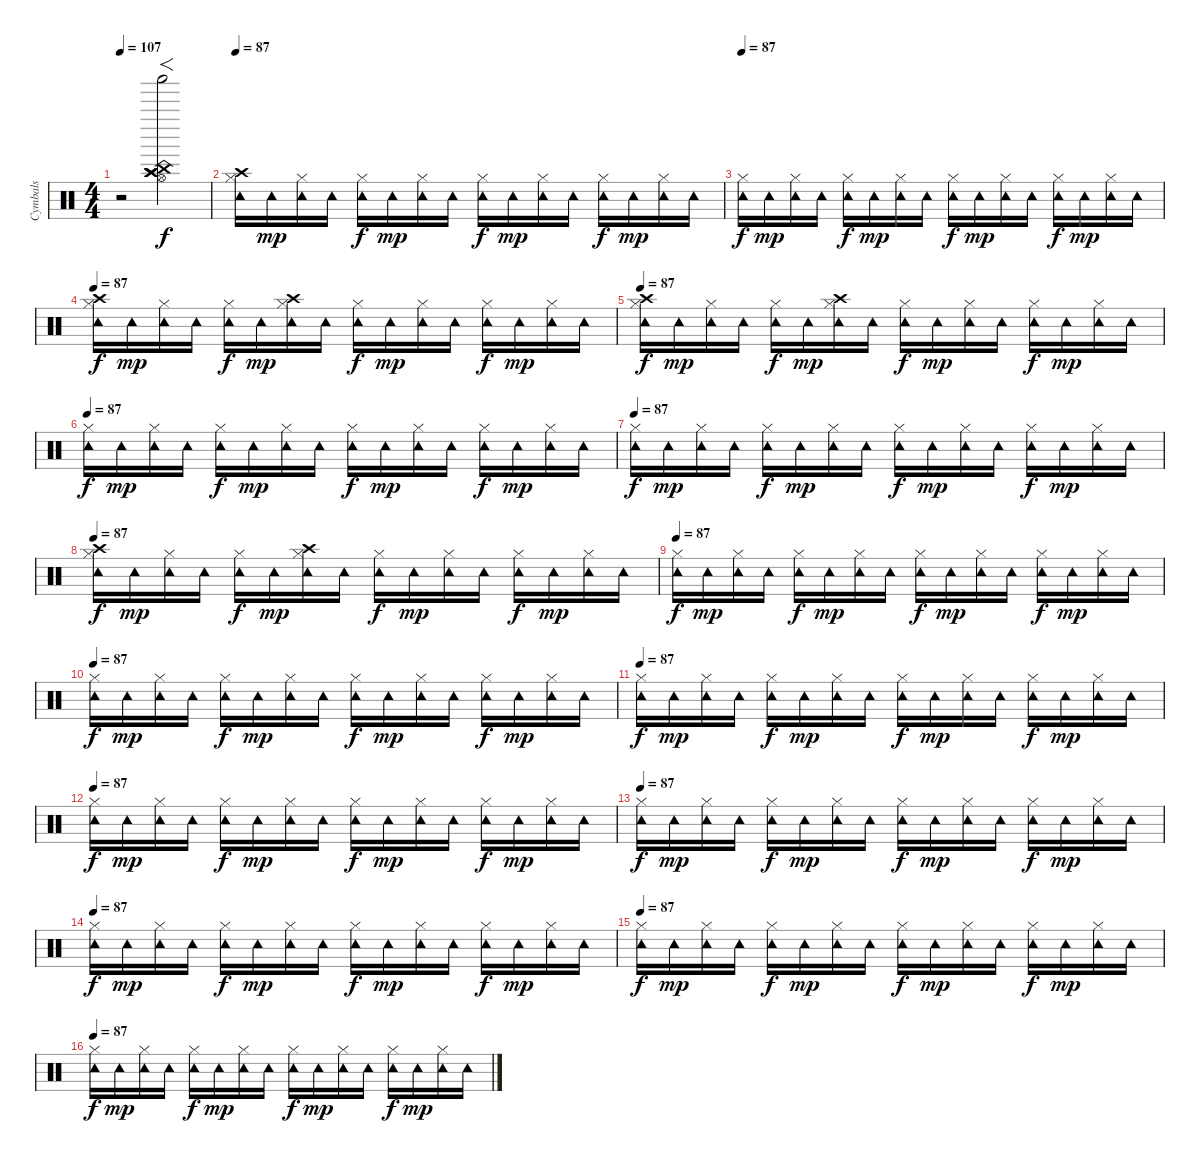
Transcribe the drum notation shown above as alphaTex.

\track ("Cymbals" "Cymbals") {instrument percussion}
\staff {score}
\articulation defaults
\ts (4 4)
\tempo 107
\clef neutral
\ks c
r.2{dy f} ("Crash high (hit)" "China (hit)" "Shaker (hit)" "Crash high (hit)" "Hi-Hat (open)" "Crash high (hit)").2{f} |
\tempo 87
("Crash high (hit)" "Hi-Hat (closed)" "Tambourine (hit)").16 "Tambourine (hit)".16{dy mp} ("Hi-Hat (closed)" "Tambourine (hit)").16 "Tambourine (hit)".16 ("Hi-Hat (closed)" "Tambourine (hit)").16{dy f} "Tambourine (hit)".16{dy mp} ("Hi-Hat (closed)" "Tambourine (hit)").16 "Tambourine (hit)".16 ("Hi-Hat (closed)" "Tambourine (hit)").16{dy f} "Tambourine (hit)".16{dy mp} ("Hi-Hat (closed)" "Tambourine (hit)").16 "Tambourine (hit)".16 ("Hi-Hat (closed)" "Tambourine (hit)").16{dy f} "Tambourine (hit)".16{dy mp} ("Hi-Hat (closed)" "Tambourine (hit)").16 "Tambourine (hit)".16 |
\tempo 87
("Hi-Hat (closed)" "Tambourine (hit)").16{dy f} "Tambourine (hit)".16{dy mp} ("Hi-Hat (closed)" "Tambourine (hit)").16 "Tambourine (hit)".16 ("Hi-Hat (closed)" "Tambourine (hit)").16{dy f} "Tambourine (hit)".16{dy mp} ("Hi-Hat (closed)" "Tambourine (hit)").16 "Tambourine (hit)".16 ("Hi-Hat (closed)" "Tambourine (hit)").16{dy f} "Tambourine (hit)".16{dy mp} ("Hi-Hat (closed)" "Tambourine (hit)").16 "Tambourine (hit)".16 ("Hi-Hat (closed)" "Tambourine (hit)").16{dy f} "Tambourine (hit)".16{dy mp} ("Hi-Hat (closed)" "Tambourine (hit)").16 "Tambourine (hit)".16 |
\tempo 87
("Crash high (hit)" "Hi-Hat (closed)" "Tambourine (hit)").16{dy f} "Tambourine (hit)".16{dy mp} ("Hi-Hat (closed)" "Tambourine (hit)").16 "Tambourine (hit)".16 ("Hi-Hat (closed)" "Tambourine (hit)").16{dy f} "Tambourine (hit)".16{dy mp} ("Crash high (hit)" "Hi-Hat (closed)" "Tambourine (hit)").16 "Tambourine (hit)".16 ("Hi-Hat (closed)" "Tambourine (hit)").16{dy f} "Tambourine (hit)".16{dy mp} ("Hi-Hat (closed)" "Tambourine (hit)").16 "Tambourine (hit)".16 ("Hi-Hat (closed)" "Tambourine (hit)").16{dy f} "Tambourine (hit)".16{dy mp} ("Hi-Hat (closed)" "Tambourine (hit)").16 "Tambourine (hit)".16 |
\tempo 87
("Crash high (hit)" "Hi-Hat (closed)" "Tambourine (hit)").16{dy f} "Tambourine (hit)".16{dy mp} ("Hi-Hat (closed)" "Tambourine (hit)").16 "Tambourine (hit)".16 ("Hi-Hat (closed)" "Tambourine (hit)").16{dy f} "Tambourine (hit)".16{dy mp} ("Crash high (hit)" "Hi-Hat (closed)" "Tambourine (hit)").16 "Tambourine (hit)".16 ("Hi-Hat (closed)" "Tambourine (hit)").16{dy f} "Tambourine (hit)".16{dy mp} ("Hi-Hat (closed)" "Tambourine (hit)").16 "Tambourine (hit)".16 ("Hi-Hat (closed)" "Tambourine (hit)").16{dy f} "Tambourine (hit)".16{dy mp} ("Hi-Hat (closed)" "Tambourine (hit)").16 "Tambourine (hit)".16 |
\tempo 87
("Hi-Hat (closed)" "Tambourine (hit)").16{dy f} "Tambourine (hit)".16{dy mp} ("Hi-Hat (closed)" "Tambourine (hit)").16 "Tambourine (hit)".16 ("Hi-Hat (closed)" "Tambourine (hit)").16{dy f} "Tambourine (hit)".16{dy mp} ("Hi-Hat (closed)" "Tambourine (hit)").16 "Tambourine (hit)".16 ("Hi-Hat (closed)" "Tambourine (hit)").16{dy f} "Tambourine (hit)".16{dy mp} ("Hi-Hat (closed)" "Tambourine (hit)").16 "Tambourine (hit)".16 ("Hi-Hat (closed)" "Tambourine (hit)").16{dy f} "Tambourine (hit)".16{dy mp} ("Hi-Hat (closed)" "Tambourine (hit)").16 "Tambourine (hit)".16 |
\tempo 87
("Hi-Hat (closed)" "Tambourine (hit)").16{dy f} "Tambourine (hit)".16{dy mp} ("Hi-Hat (closed)" "Tambourine (hit)").16 "Tambourine (hit)".16 ("Hi-Hat (closed)" "Tambourine (hit)").16{dy f} "Tambourine (hit)".16{dy mp} ("Hi-Hat (closed)" "Tambourine (hit)").16 "Tambourine (hit)".16 ("Hi-Hat (closed)" "Tambourine (hit)").16{dy f} "Tambourine (hit)".16{dy mp} ("Hi-Hat (closed)" "Tambourine (hit)").16 "Tambourine (hit)".16 ("Hi-Hat (closed)" "Tambourine (hit)").16{dy f} "Tambourine (hit)".16{dy mp} ("Hi-Hat (closed)" "Tambourine (hit)").16 "Tambourine (hit)".16 |
\tempo 87
("Crash high (hit)" "Hi-Hat (closed)" "Tambourine (hit)").16{dy f} "Tambourine (hit)".16{dy mp} ("Hi-Hat (closed)" "Tambourine (hit)").16 "Tambourine (hit)".16 ("Hi-Hat (closed)" "Tambourine (hit)").16{dy f} "Tambourine (hit)".16{dy mp} ("Crash high (hit)" "Hi-Hat (closed)" "Tambourine (hit)").16 "Tambourine (hit)".16 ("Hi-Hat (closed)" "Tambourine (hit)").16{dy f} "Tambourine (hit)".16{dy mp} ("Hi-Hat (closed)" "Tambourine (hit)").16 "Tambourine (hit)".16 ("Hi-Hat (closed)" "Tambourine (hit)").16{dy f} "Tambourine (hit)".16{dy mp} ("Hi-Hat (closed)" "Tambourine (hit)").16 "Tambourine (hit)".16 |
\tempo 87
("Hi-Hat (closed)" "Tambourine (hit)").16{dy f} "Tambourine (hit)".16{dy mp} ("Hi-Hat (closed)" "Tambourine (hit)").16 "Tambourine (hit)".16 ("Hi-Hat (closed)" "Tambourine (hit)").16{dy f} "Tambourine (hit)".16{dy mp} ("Hi-Hat (closed)" "Tambourine (hit)").16 "Tambourine (hit)".16 ("Hi-Hat (closed)" "Tambourine (hit)").16{dy f} "Tambourine (hit)".16{dy mp} ("Hi-Hat (closed)" "Tambourine (hit)").16 "Tambourine (hit)".16 ("Hi-Hat (closed)" "Tambourine (hit)").16{dy f} "Tambourine (hit)".16{dy mp} ("Hi-Hat (closed)" "Tambourine (hit)").16 "Tambourine (hit)".16 |
\tempo 87
("Hi-Hat (closed)" "Tambourine (hit)").16{dy f} "Tambourine (hit)".16{dy mp} ("Hi-Hat (closed)" "Tambourine (hit)").16 "Tambourine (hit)".16 ("Hi-Hat (closed)" "Tambourine (hit)").16{dy f} "Tambourine (hit)".16{dy mp} ("Hi-Hat (closed)" "Tambourine (hit)").16 "Tambourine (hit)".16 ("Hi-Hat (closed)" "Tambourine (hit)").16{dy f} "Tambourine (hit)".16{dy mp} ("Hi-Hat (closed)" "Tambourine (hit)").16 "Tambourine (hit)".16 ("Hi-Hat (closed)" "Tambourine (hit)").16{dy f} "Tambourine (hit)".16{dy mp} ("Hi-Hat (closed)" "Tambourine (hit)").16 "Tambourine (hit)".16 |
\tempo 87
("Hi-Hat (closed)" "Tambourine (hit)").16{dy f} "Tambourine (hit)".16{dy mp} ("Hi-Hat (closed)" "Tambourine (hit)").16 "Tambourine (hit)".16 ("Hi-Hat (closed)" "Tambourine (hit)").16{dy f} "Tambourine (hit)".16{dy mp} ("Hi-Hat (closed)" "Tambourine (hit)").16 "Tambourine (hit)".16 ("Hi-Hat (closed)" "Tambourine (hit)").16{dy f} "Tambourine (hit)".16{dy mp} ("Hi-Hat (closed)" "Tambourine (hit)").16 "Tambourine (hit)".16 ("Hi-Hat (closed)" "Tambourine (hit)").16{dy f} "Tambourine (hit)".16{dy mp} ("Hi-Hat (closed)" "Tambourine (hit)").16 "Tambourine (hit)".16 |
\tempo 87
("Hi-Hat (closed)" "Tambourine (hit)").16{dy f} "Tambourine (hit)".16{dy mp} ("Hi-Hat (closed)" "Tambourine (hit)").16 "Tambourine (hit)".16 ("Hi-Hat (closed)" "Tambourine (hit)").16{dy f} "Tambourine (hit)".16{dy mp} ("Hi-Hat (closed)" "Tambourine (hit)").16 "Tambourine (hit)".16 ("Hi-Hat (closed)" "Tambourine (hit)").16{dy f} "Tambourine (hit)".16{dy mp} ("Hi-Hat (closed)" "Tambourine (hit)").16 "Tambourine (hit)".16 ("Hi-Hat (closed)" "Tambourine (hit)").16{dy f} "Tambourine (hit)".16{dy mp} ("Hi-Hat (closed)" "Tambourine (hit)").16 "Tambourine (hit)".16 |
\tempo 87
("Hi-Hat (closed)" "Tambourine (hit)").16{dy f} "Tambourine (hit)".16{dy mp} ("Hi-Hat (closed)" "Tambourine (hit)").16 "Tambourine (hit)".16 ("Hi-Hat (closed)" "Tambourine (hit)").16{dy f} "Tambourine (hit)".16{dy mp} ("Hi-Hat (closed)" "Tambourine (hit)").16 "Tambourine (hit)".16 ("Hi-Hat (closed)" "Tambourine (hit)").16{dy f} "Tambourine (hit)".16{dy mp} ("Hi-Hat (closed)" "Tambourine (hit)").16 "Tambourine (hit)".16 ("Hi-Hat (closed)" "Tambourine (hit)").16{dy f} "Tambourine (hit)".16{dy mp} ("Hi-Hat (closed)" "Tambourine (hit)").16 "Tambourine (hit)".16 |
\tempo 87
("Hi-Hat (closed)" "Tambourine (hit)").16{dy f} "Tambourine (hit)".16{dy mp} ("Hi-Hat (closed)" "Tambourine (hit)").16 "Tambourine (hit)".16 ("Hi-Hat (closed)" "Tambourine (hit)").16{dy f} "Tambourine (hit)".16{dy mp} ("Hi-Hat (closed)" "Tambourine (hit)").16 "Tambourine (hit)".16 ("Hi-Hat (closed)" "Tambourine (hit)").16{dy f} "Tambourine (hit)".16{dy mp} ("Hi-Hat (closed)" "Tambourine (hit)").16 "Tambourine (hit)".16 ("Hi-Hat (closed)" "Tambourine (hit)").16{dy f} "Tambourine (hit)".16{dy mp} ("Hi-Hat (closed)" "Tambourine (hit)").16 "Tambourine (hit)".16 |
\tempo 87
("Hi-Hat (closed)" "Tambourine (hit)").16{dy f} "Tambourine (hit)".16{dy mp} ("Hi-Hat (closed)" "Tambourine (hit)").16 "Tambourine (hit)".16 ("Hi-Hat (closed)" "Tambourine (hit)").16{dy f} "Tambourine (hit)".16{dy mp} ("Hi-Hat (closed)" "Tambourine (hit)").16 "Tambourine (hit)".16 ("Hi-Hat (closed)" "Tambourine (hit)").16{dy f} "Tambourine (hit)".16{dy mp} ("Hi-Hat (closed)" "Tambourine (hit)").16 "Tambourine (hit)".16 ("Hi-Hat (closed)" "Tambourine (hit)").16{dy f} "Tambourine (hit)".16{dy mp} ("Hi-Hat (closed)" "Tambourine (hit)").16 "Tambourine (hit)".16 |
\tempo 87
("Hi-Hat (closed)" "Tambourine (hit)").16{dy f} "Tambourine (hit)".16{dy mp} ("Hi-Hat (closed)" "Tambourine (hit)").16 "Tambourine (hit)".16 ("Hi-Hat (closed)" "Tambourine (hit)").16{dy f} "Tambourine (hit)".16{dy mp} ("Hi-Hat (closed)" "Tambourine (hit)").16 "Tambourine (hit)".16 ("Hi-Hat (closed)" "Tambourine (hit)").16{dy f} "Tambourine (hit)".16{dy mp} ("Hi-Hat (closed)" "Tambourine (hit)").16 "Tambourine (hit)".16 ("Hi-Hat (closed)" "Tambourine (hit)").16{dy f} "Tambourine (hit)".16{dy mp} ("Hi-Hat (closed)" "Tambourine (hit)").16 "Tambourine (hit)".16
